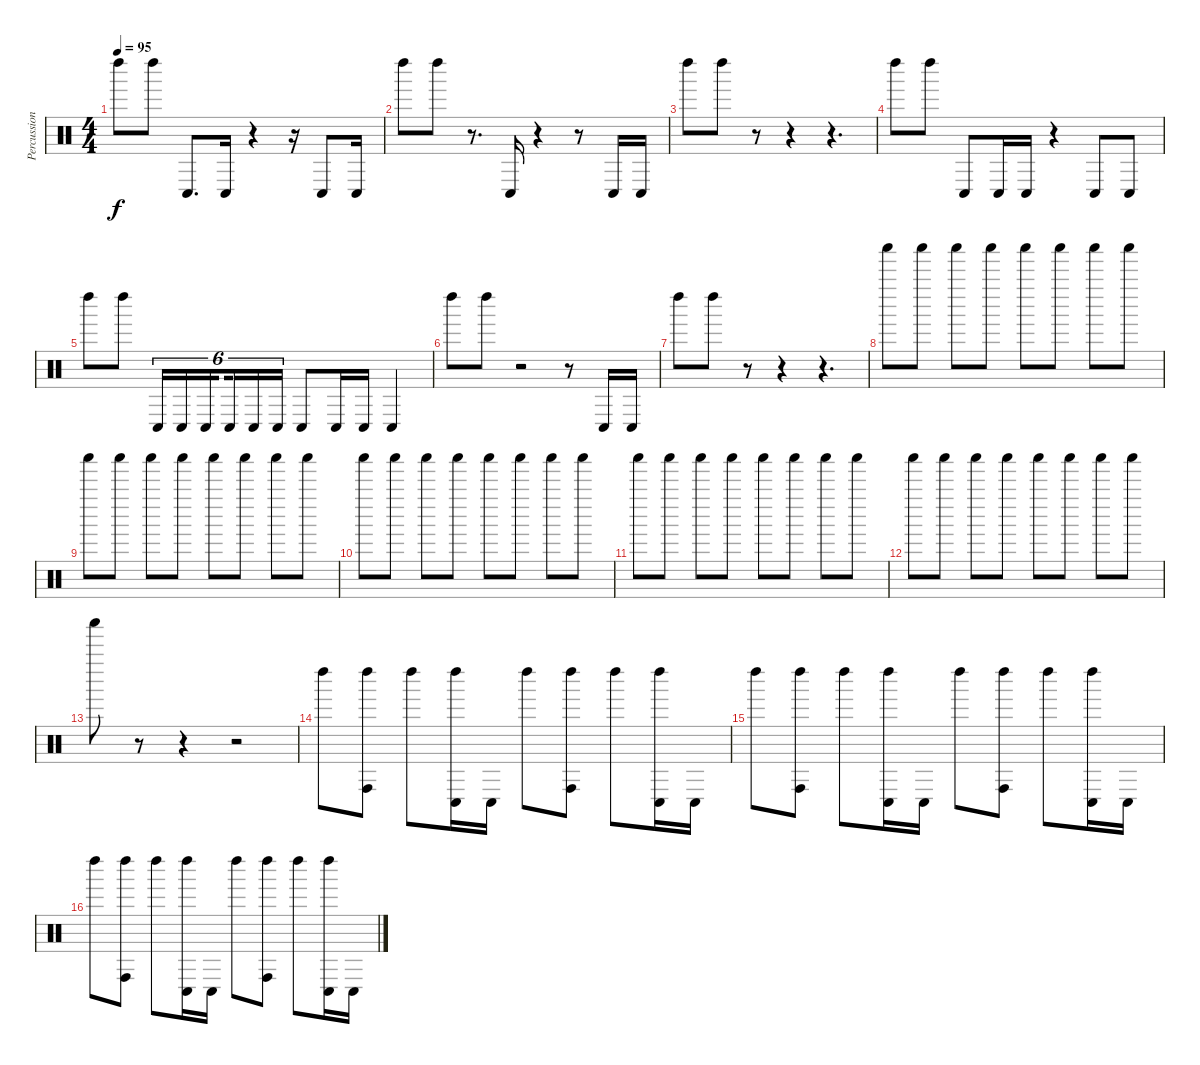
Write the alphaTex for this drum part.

\track ("Percussion" "Percussion") {instrument percussion}
\staff {score}
\articulation defaults
\ts (4 4)
\tempo 95
\clef neutral
\ks c "Left Maraca (hit)".8{dy f} "Left Maraca (hit)".8 "Conga low (hit)".8{d} "Conga low (hit)".16
r.4 r.16 "Conga low (hit)".8 "Conga low (hit)".16 |
"Left Maraca (hit)".8 "Left Maraca (hit)".8 r.8{d} "Conga low (hit)".16 r.4 r.8 "Conga low (hit)".16 "Conga low (hit)".16 |
"Left Maraca (hit)".8 "Left Maraca (hit)".8 r.8 r.4 r.4{d} |
"Left Maraca (hit)".8 "Left Maraca (hit)".8 "Conga low (hit)".8 "Conga low (hit)".16 "Conga low (hit)".16 r.4 "Conga low (hit)".8 "Conga low (hit)".8 |
"Left Maraca (hit)".8 "Left Maraca (hit)".8 "Conga low (hit)".16{tu (6 4)} "Conga low (hit)".16{tu (6 4)} "Conga low (hit)".16{tu (6 4) beam splitsecondary} "Conga low (hit)".16{tu (6 4)} "Conga low (hit)".16{tu (6 4)} "Conga low (hit)".16{tu (6 4)} "Conga low (hit)".8 "Conga low (hit)".16 "Conga low (hit)".16 "Conga low (hit)".4 |
"Left Maraca (hit)".8 "Left Maraca (hit)".8 r.2 r.8 "Conga low (hit)".16 "Conga low (hit)".16 |
"Left Maraca (hit)".8 "Left Maraca (hit)".8 r.8 r.4 r.4{d} |
"Shaker (hit)".8 "Shaker (hit)".8 "Shaker (hit)".8 "Shaker (hit)".8 "Shaker (hit)".8 "Shaker (hit)".8 "Shaker (hit)".8 "Shaker (hit)".8 |
"Shaker (hit)".8 "Shaker (hit)".8 "Shaker (hit)".8 "Shaker (hit)".8 "Shaker (hit)".8 "Shaker (hit)".8 "Shaker (hit)".8 "Shaker (hit)".8 |
"Shaker (hit)".8 "Shaker (hit)".8 "Shaker (hit)".8 "Shaker (hit)".8 "Shaker (hit)".8 "Shaker (hit)".8 "Shaker (hit)".8 "Shaker (hit)".8 |
"Shaker (hit)".8 "Shaker (hit)".8 "Shaker (hit)".8 "Shaker (hit)".8 "Shaker (hit)".8 "Shaker (hit)".8 "Shaker (hit)".8 "Shaker (hit)".8 |
"Shaker (hit)".8 "Shaker (hit)".8 "Shaker (hit)".8 "Shaker (hit)".8 "Shaker (hit)".8 "Shaker (hit)".8 "Shaker (hit)".8 "Shaker (hit)".8 |
"Shaker (hit)".8 r.8 r.4 r.2 |
"Left Maraca (hit)".8 ("Left Maraca (hit)" "Conga high (hit)").8 "Left Maraca (hit)".8 ("Left Maraca (hit)" "Conga low (hit)").16 "Conga low (hit)".16 "Left Maraca (hit)".8 ("Left Maraca (hit)" "Conga high (hit)").8 "Left Maraca (hit)".8 ("Left Maraca (hit)" "Conga low (hit)").16 "Conga low (hit)".16 |
"Left Maraca (hit)".8 ("Left Maraca (hit)" "Conga high (hit)").8 "Left Maraca (hit)".8 ("Left Maraca (hit)" "Conga low (hit)").16 "Conga low (hit)".16 "Left Maraca (hit)".8 ("Left Maraca (hit)" "Conga high (hit)").8 "Left Maraca (hit)".8 ("Left Maraca (hit)" "Conga low (hit)").16 "Conga low (hit)".16 |
"Left Maraca (hit)".8 ("Left Maraca (hit)" "Conga high (hit)").8 "Left Maraca (hit)".8 ("Left Maraca (hit)" "Conga low (hit)").16 "Conga low (hit)".16 "Left Maraca (hit)".8 ("Left Maraca (hit)" "Conga high (hit)").8 "Left Maraca (hit)".8 ("Left Maraca (hit)" "Conga low (hit)").16 "Conga low (hit)".16
